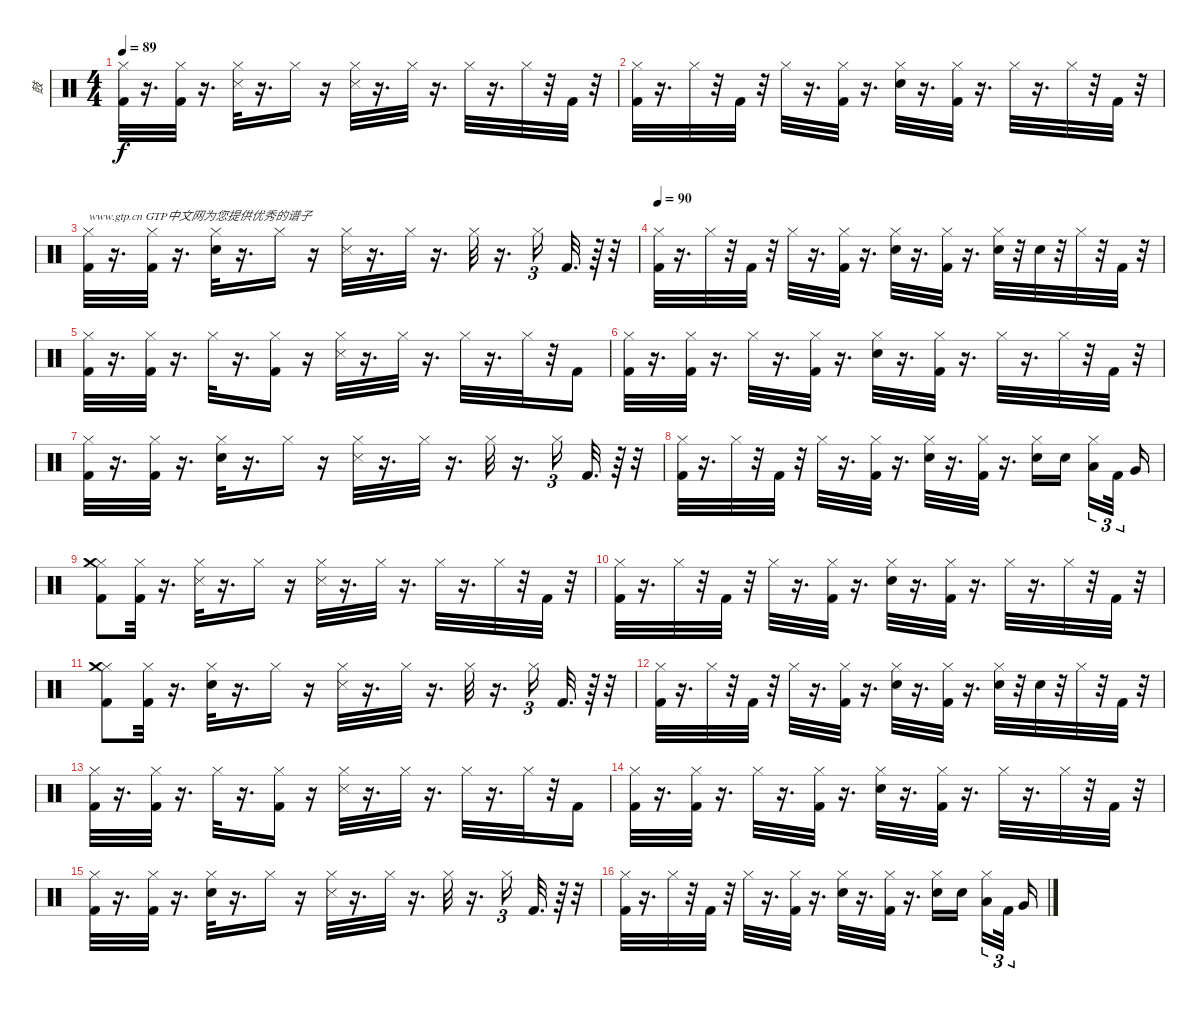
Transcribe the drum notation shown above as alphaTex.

\track ("鼓" "鼓") {instrument percussion}
\staff {score}
\articulation defaults
\ts (4 4)
\tempo 89
\clef neutral
\ks c
("Kick (hit) 2" "Hi-Hat (closed)").32{dy f} r.16{d} ("Kick (hit) 2" "Hi-Hat (closed)").32 r.16{d} ("Snare (side stick) 3" "Hi-Hat (closed)").32 r.16{d} "Hi-Hat (closed)".16 r.16 ("Snare (side stick) 3" "Hi-Hat (closed)").32 r.16{d} "Hi-Hat (closed)".32 r.16{d} "Hi-Hat (closed)".32 r.16{d} "Hi-Hat (closed)".32 r.32 "Kick (hit) 2".32 r.32 |
("Kick (hit) 2" "Hi-Hat (closed)").32 r.16{d} "Hi-Hat (closed)".32 r.32 "Kick (hit) 2".32 r.32 "Hi-Hat (closed)".32 r.16{d} ("Kick (hit) 2" "Hi-Hat (closed)").32 r.16{d} ("Snare (hit) 2" "Hi-Hat (closed)").32 r.16{d} ("Kick (hit) 2" "Hi-Hat (closed)").32 r.16{d} "Hi-Hat (closed)".32 r.16{d} "Hi-Hat (closed)".32 r.32 "Kick (hit) 2".32 r.32 |
("Kick (hit) 2" "Hi-Hat (closed)").32{txt "www.gtp.cn GTP中文网为您提供优秀的谱子"} r.16{d} ("Kick (hit) 2" "Hi-Hat (closed)").32 r.16{d} ("Snare (hit) 2" "Hi-Hat (closed)").32 r.16{d} "Hi-Hat (closed)".16 r.16 ("Snare (side stick) 3" "Hi-Hat (closed)").32 r.16{d} "Hi-Hat (closed)".32 r.16{d} "Hi-Hat (closed)".32 r.16{d} "Hi-Hat (closed)".16{tu (3 2)} "Kick (hit) 2".32{d} r.64 r.32 |
\tempo 90
("Kick (hit) 2" "Hi-Hat (closed)").32 r.16{d} "Hi-Hat (closed)".32 r.32 "Kick (hit) 2".32 r.32 "Hi-Hat (closed)".32 r.16{d} ("Kick (hit) 2" "Hi-Hat (closed)").32 r.16{d} ("Snare (hit) 2" "Hi-Hat (closed)").32 r.16{d} ("Kick (hit) 2" "Hi-Hat (closed)").32 r.16{d} ("Electric Snare (hit)" "Hi-Hat (closed)").32 r.32 "Electric Snare (hit)".32 r.32 "Hi-Hat (closed)".32 r.32 "Kick (hit) 2".32 r.32 |
("Kick (hit) 2" "Hi-Hat (closed)").32 r.16{d} ("Kick (hit) 2" "Hi-Hat (closed)").32 r.16{d} "Hi-Hat (closed)".32 r.16{d} ("Kick (hit) 2" "Hi-Hat (closed)").16 r.16 ("Snare (side stick) 3" "Hi-Hat (closed)").32 r.16{d} "Hi-Hat (closed)".32 r.16{d} "Hi-Hat (closed)".32 r.16{d} "Hi-Hat (closed)".32 r.32 "Kick (hit) 2".16 |
("Kick (hit) 2" "Hi-Hat (closed)").32 r.16{d} ("Kick (hit) 2" "Hi-Hat (closed)").32 r.16{d} "Hi-Hat (closed)".32 r.16{d} ("Kick (hit) 2" "Hi-Hat (closed)").32 r.16{d} ("Snare (hit) 2" "Hi-Hat (closed)").32 r.16{d} ("Kick (hit) 2" "Hi-Hat (closed)").32 r.16{d} "Hi-Hat (closed)".32 r.16{d} "Hi-Hat (closed)".32 r.32 "Kick (hit) 2".32 r.32 |
("Kick (hit) 2" "Hi-Hat (closed)").32 r.16{d} ("Kick (hit) 2" "Hi-Hat (closed)").32 r.16{d} ("Snare (hit) 2" "Hi-Hat (closed)").32 r.16{d} "Hi-Hat (closed)".16 r.16 ("Snare (side stick) 3" "Hi-Hat (closed)").32 r.16{d} "Hi-Hat (closed)".32 r.16{d} "Hi-Hat (closed)".32 r.16{d} "Hi-Hat (closed)".16{tu (3 2)} "Kick (hit) 2".32{d} r.64 r.32 |
("Kick (hit) 2" "Hi-Hat (closed)").32 r.16{d} "Hi-Hat (closed)".32 r.32 "Kick (hit) 2".32 r.32 "Hi-Hat (closed)".32 r.16{d} ("Kick (hit) 2" "Hi-Hat (closed)").32 r.16{d} ("Snare (hit) 2" "Hi-Hat (closed)").32 r.16{d} ("Kick (hit) 2" "Hi-Hat (closed)").32 r.16{d} ("Electric Snare (hit)" "Hi-Hat (closed)").16 "Electric Snare (hit)".16 ("Hi-Hat (closed)" "Low Tom (hit)").16{tu (3 2)} "Kick (hit) 2".32{tu (3 2)} "Very Low Tom (hit)".16 |
("Kick (hit) 2" "Hi-Hat (closed)" "Crash medium (hit)").8 ("Kick (hit) 2" "Hi-Hat (closed)").32 r.16{d} ("Snare (side stick) 3" "Hi-Hat (closed)").32 r.16{d} "Hi-Hat (closed)".16 r.16 ("Snare (side stick) 3" "Hi-Hat (closed)").32 r.16{d} "Hi-Hat (closed)".32 r.16{d} "Hi-Hat (closed)".32 r.16{d} "Hi-Hat (closed)".32 r.32 "Kick (hit) 2".32 r.32 |
("Kick (hit) 2" "Hi-Hat (closed)").32 r.16{d} "Hi-Hat (closed)".32 r.32 "Kick (hit) 2".32 r.32 "Hi-Hat (closed)".32 r.16{d} ("Kick (hit) 2" "Hi-Hat (closed)").32 r.16{d} ("Snare (hit) 2" "Hi-Hat (closed)").32 r.16{d} ("Kick (hit) 2" "Hi-Hat (closed)").32 r.16{d} "Hi-Hat (closed)".32 r.16{d} "Hi-Hat (closed)".32 r.32 "Kick (hit) 2".32 r.32 |
("Kick (hit) 2" "Hi-Hat (closed)" "Crash medium (hit)").8 ("Kick (hit) 2" "Hi-Hat (closed)").32 r.16{d} ("Snare (hit) 2" "Hi-Hat (closed)").32 r.16{d} "Hi-Hat (closed)".16 r.16 ("Snare (side stick) 3" "Hi-Hat (closed)").32 r.16{d} "Hi-Hat (closed)".32 r.16{d} "Hi-Hat (closed)".32 r.16{d} "Hi-Hat (closed)".16{tu (3 2)} "Kick (hit) 2".32{d} r.64 r.32 |
("Kick (hit) 2" "Hi-Hat (closed)").32 r.16{d} "Hi-Hat (closed)".32 r.32 "Kick (hit) 2".32 r.32 "Hi-Hat (closed)".32 r.16{d} ("Kick (hit) 2" "Hi-Hat (closed)").32 r.16{d} ("Snare (hit) 2" "Hi-Hat (closed)").32 r.16{d} ("Kick (hit) 2" "Hi-Hat (closed)").32 r.16{d} ("Electric Snare (hit)" "Hi-Hat (closed)").32 r.32 "Electric Snare (hit)".32 r.32 "Hi-Hat (closed)".32 r.32 "Kick (hit) 2".32 r.32 |
("Kick (hit) 2" "Hi-Hat (closed)").32 r.16{d} ("Kick (hit) 2" "Hi-Hat (closed)").32 r.16{d} "Hi-Hat (closed)".32 r.16{d} ("Kick (hit) 2" "Hi-Hat (closed)").16 r.16 ("Snare (side stick) 3" "Hi-Hat (closed)").32 r.16{d} "Hi-Hat (closed)".32 r.16{d} "Hi-Hat (closed)".32 r.16{d} "Hi-Hat (closed)".32 r.32 "Kick (hit) 2".16 |
("Kick (hit) 2" "Hi-Hat (closed)").32 r.16{d} ("Kick (hit) 2" "Hi-Hat (closed)").32 r.16{d} "Hi-Hat (closed)".32 r.16{d} ("Kick (hit) 2" "Hi-Hat (closed)").32 r.16{d} ("Snare (hit) 2" "Hi-Hat (closed)").32 r.16{d} ("Kick (hit) 2" "Hi-Hat (closed)").32 r.16{d} "Hi-Hat (closed)".32 r.16{d} "Hi-Hat (closed)".32 r.32 "Kick (hit) 2".32 r.32 |
("Kick (hit) 2" "Hi-Hat (closed)").32 r.16{d} ("Kick (hit) 2" "Hi-Hat (closed)").32 r.16{d} ("Snare (hit) 2" "Hi-Hat (closed)").32 r.16{d} "Hi-Hat (closed)".16 r.16 ("Snare (side stick) 3" "Hi-Hat (closed)").32 r.16{d} "Hi-Hat (closed)".32 r.16{d} "Hi-Hat (closed)".32 r.16{d} "Hi-Hat (closed)".16{tu (3 2)} "Kick (hit) 2".32{d} r.64 r.32 |
("Kick (hit) 2" "Hi-Hat (closed)").32 r.16{d} "Hi-Hat (closed)".32 r.32 "Kick (hit) 2".32 r.32 "Hi-Hat (closed)".32 r.16{d} ("Kick (hit) 2" "Hi-Hat (closed)").32 r.16{d} ("Snare (hit) 2" "Hi-Hat (closed)").32 r.16{d} ("Kick (hit) 2" "Hi-Hat (closed)").32 r.16{d} ("Electric Snare (hit)" "Hi-Hat (closed)").16 "Electric Snare (hit)".16 ("Hi-Hat (closed)" "Low Tom (hit)").16{tu (3 2)} "Kick (hit) 2".32{tu (3 2)} "Very Low Tom (hit)".16
